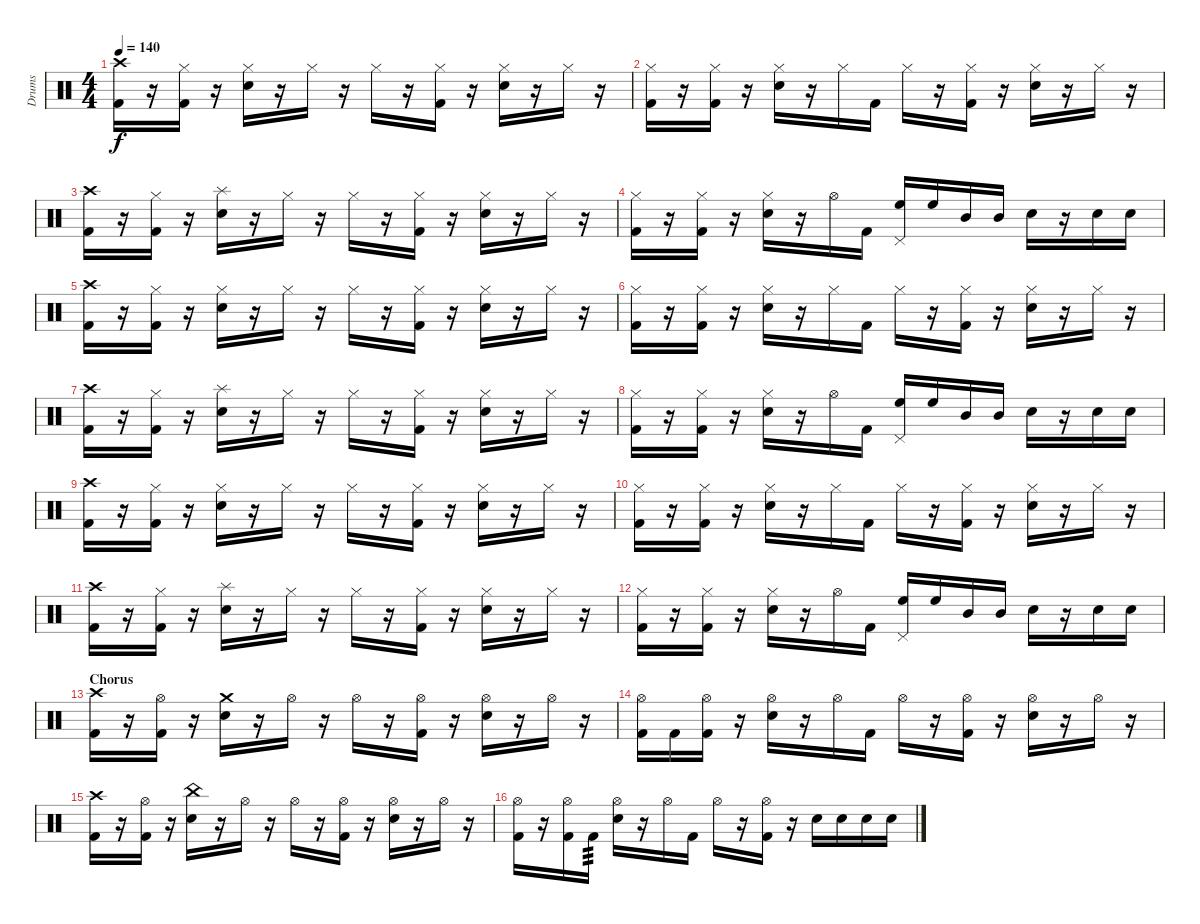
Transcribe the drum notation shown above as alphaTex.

\track ("Drums" "Drums") {instrument percussion}
\staff {score}
\articulation defaults
\ts (4 4)
\tempo 140
\clef neutral
\ks c
("Crash high (hit)" "Kick (hit) 2").16{dy f} r.16 ("Hi-Hat (closed)" "Kick (hit) 2").16 r.16 ("Hi-Hat (closed)" "Snare (hit) 2").16 r.16 "Hi-Hat (closed)".16 r.16 "Hi-Hat (closed)".16 r.16 ("Hi-Hat (closed)" "Kick (hit) 2").16 r.16 ("Hi-Hat (closed)" "Snare (hit) 2").16 r.16 "Hi-Hat (closed)".16 r.16 |
("Hi-Hat (closed)" "Kick (hit) 2").16 r.16 ("Hi-Hat (closed)" "Kick (hit) 2").16 r.16 ("Hi-Hat (closed)" "Snare (hit) 2").16 r.16 "Hi-Hat (closed)".16 "Kick (hit) 2".16 "Hi-Hat (closed)".16 r.16 ("Hi-Hat (closed)" "Kick (hit) 2").16 r.16 ("Hi-Hat (closed)" "Snare (hit) 2").16 r.16 "Hi-Hat (closed)".16 r.16 |
("Crash high (hit)" "Kick (hit) 2").16 r.16 ("Hi-Hat (closed)" "Kick (hit) 2").16 r.16 ("Splash (hit)" "Snare (hit) 2").16 r.16 "Hi-Hat (closed)".16 r.16 "Hi-Hat (closed)".16 r.16 ("Hi-Hat (closed)" "Kick (hit) 2").16 r.16 ("Hi-Hat (closed)" "Snare (hit) 2").16 r.16 "Hi-Hat (closed)".16 r.16 |
("Hi-Hat (closed)" "Kick (hit) 2").16 r.16 ("Hi-Hat (closed)" "Kick (hit) 2").16 r.16 ("Hi-Hat (closed)" "Snare (hit) 2").16 r.16 "Hi-Hat (open)".16 "Kick (hit) 2".16 ("High Floor Tom (hit)" "Pedal Hi-Hat (hit)").16 "High Floor Tom (hit)".16 "Mid Tom (hit)".16 "Mid Tom (hit)".16 "Snare (hit) 2".16 r.16 "Snare (hit) 2".16 "Snare (hit) 2".16 |
("Crash high (hit)" "Kick (hit) 2").16 r.16 ("Hi-Hat (closed)" "Kick (hit) 2").16 r.16 ("Hi-Hat (closed)" "Snare (hit) 2").16 r.16 "Hi-Hat (closed)".16 r.16 "Hi-Hat (closed)".16 r.16 ("Hi-Hat (closed)" "Kick (hit) 2").16 r.16 ("Hi-Hat (closed)" "Snare (hit) 2").16 r.16 "Hi-Hat (closed)".16 r.16 |
("Hi-Hat (closed)" "Kick (hit) 2").16 r.16 ("Hi-Hat (closed)" "Kick (hit) 2").16 r.16 ("Hi-Hat (closed)" "Snare (hit) 2").16 r.16 "Hi-Hat (closed)".16 "Kick (hit) 2".16 "Hi-Hat (closed)".16 r.16 ("Hi-Hat (closed)" "Kick (hit) 2").16 r.16 ("Hi-Hat (closed)" "Snare (hit) 2").16 r.16 "Hi-Hat (closed)".16 r.16 |
("Crash high (hit)" "Kick (hit) 2").16 r.16 ("Hi-Hat (closed)" "Kick (hit) 2").16 r.16 ("Splash (hit)" "Snare (hit) 2").16 r.16 "Hi-Hat (closed)".16 r.16 "Hi-Hat (closed)".16 r.16 ("Hi-Hat (closed)" "Kick (hit) 2").16 r.16 ("Hi-Hat (closed)" "Snare (hit) 2").16 r.16 "Hi-Hat (closed)".16 r.16 |
("Hi-Hat (closed)" "Kick (hit) 2").16 r.16 ("Hi-Hat (closed)" "Kick (hit) 2").16 r.16 ("Hi-Hat (closed)" "Snare (hit) 2").16 r.16 "Hi-Hat (open)".16 "Kick (hit) 2".16 ("High Floor Tom (hit)" "Pedal Hi-Hat (hit)").16 "High Floor Tom (hit)".16 "Mid Tom (hit)".16 "Mid Tom (hit)".16 "Snare (hit) 2".16 r.16 "Snare (hit) 2".16 "Snare (hit) 2".16 |
("Crash high (hit)" "Kick (hit) 2").16 r.16 ("Hi-Hat (closed)" "Kick (hit) 2").16 r.16 ("Hi-Hat (closed)" "Snare (hit) 2").16 r.16 "Hi-Hat (closed)".16 r.16 "Hi-Hat (closed)".16 r.16 ("Hi-Hat (closed)" "Kick (hit) 2").16 r.16 ("Hi-Hat (closed)" "Snare (hit) 2").16 r.16 "Hi-Hat (closed)".16 r.16 |
("Hi-Hat (closed)" "Kick (hit) 2").16 r.16 ("Hi-Hat (closed)" "Kick (hit) 2").16 r.16 ("Hi-Hat (closed)" "Snare (hit) 2").16 r.16 "Hi-Hat (closed)".16 "Kick (hit) 2".16 "Hi-Hat (closed)".16 r.16 ("Hi-Hat (closed)" "Kick (hit) 2").16 r.16 ("Hi-Hat (closed)" "Snare (hit) 2").16 r.16 "Hi-Hat (closed)".16 r.16 |
("Crash high (hit)" "Kick (hit) 2").16 r.16 ("Hi-Hat (closed)" "Kick (hit) 2").16 r.16 ("Splash (hit)" "Snare (hit) 2").16 r.16 "Hi-Hat (closed)".16 r.16 "Hi-Hat (closed)".16 r.16 ("Hi-Hat (closed)" "Kick (hit) 2").16 r.16 ("Hi-Hat (closed)" "Snare (hit) 2").16 r.16 "Hi-Hat (closed)".16 r.16 |
("Hi-Hat (closed)" "Kick (hit) 2").16 r.16 ("Hi-Hat (closed)" "Kick (hit) 2").16 r.16 ("Hi-Hat (closed)" "Snare (hit) 2").16 r.16 "Hi-Hat (open)".16 "Kick (hit) 2".16 ("High Floor Tom (hit)" "Pedal Hi-Hat (hit)").16 "High Floor Tom (hit)".16 "Mid Tom (hit)".16 "Mid Tom (hit)".16 "Snare (hit) 2".16 r.16 "Snare (hit) 2".16 "Snare (hit) 2".16 |
\section ("" "Chorus")
("Crash high (hit)" "Kick (hit) 2").16 r.16 ("Hi-Hat (open)" "Kick (hit) 2").16 r.16 ("Crash medium (hit)" "Snare (hit) 2").16 r.16 "Hi-Hat (open)".16 r.16 "Hi-Hat (open)".16 r.16 ("Hi-Hat (open)" "Kick (hit) 2").16 r.16 ("Hi-Hat (open)" "Snare (hit) 2").16 r.16 "Hi-Hat (open)".16 r.16 |
("Hi-Hat (open)" "Kick (hit) 2").16 "Kick (hit) 2".16 ("Hi-Hat (open)" "Kick (hit) 2").16 r.16 ("Hi-Hat (open)" "Snare (hit) 2").16 r.16 "Hi-Hat (open)".16 "Kick (hit) 2".16 "Hi-Hat (open)".16 r.16 ("Hi-Hat (open)" "Kick (hit) 2").16 r.16 ("Hi-Hat (open)" "Snare (hit) 2").16 r.16 "Hi-Hat (open)".16 r.16 |
("Crash high (hit)" "Kick (hit) 2").16 r.16 ("Hi-Hat (open)" "Kick (hit) 2").16 r.16 ("China (hit)" "Snare (hit) 2").16 r.16 "Hi-Hat (open)".16 r.16 "Hi-Hat (open)".16 r.16 ("Hi-Hat (open)" "Kick (hit) 2").16 r.16 ("Hi-Hat (open)" "Snare (hit) 2").16 r.16 "Hi-Hat (open)".16 r.16 |
("Hi-Hat (open)" "Kick (hit) 2").16 r.16 ("Hi-Hat (open)" "Kick (hit) 2").16 "Kick (hit) 2".16{tp 3} ("Hi-Hat (open)" "Snare (hit) 2").16 r.16 "Hi-Hat (open)".16 "Kick (hit) 2".16 "Hi-Hat (open)".16 r.16 ("Hi-Hat (open)" "Kick (hit) 2").16 r.16 "Snare (hit) 2".16 "Snare (hit) 2".16 "Snare (hit) 2".16 "Snare (hit) 2".16
